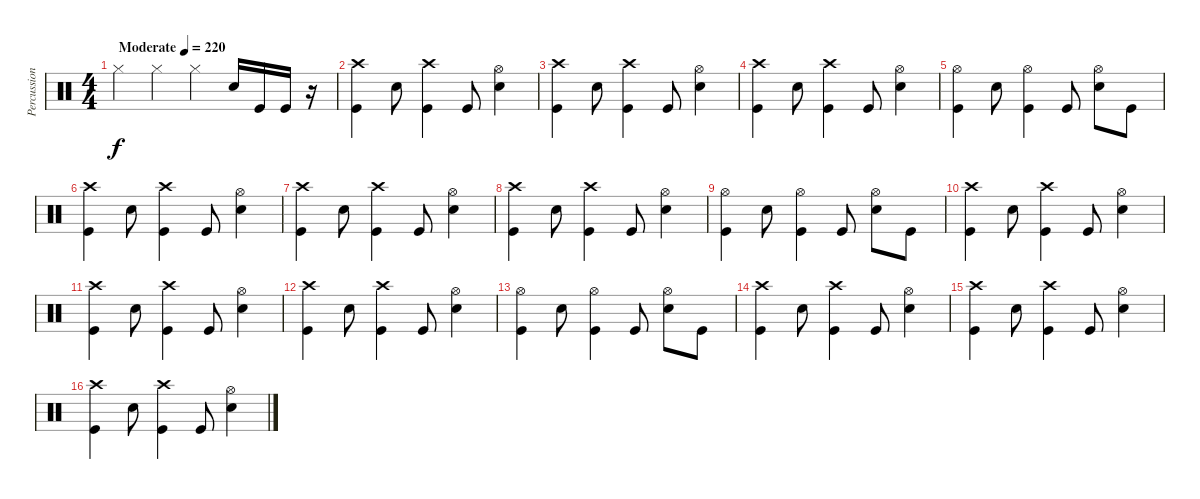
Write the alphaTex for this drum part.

\track ("Percussion" "Percussion") {instrument percussion}
\staff {score}
\articulation defaults
\ts (4 4)
\tempo (220 "Moderate")
\clef neutral
\ks c "Hi-Hat (closed)".4{dy f} "Hi-Hat (closed)".4 "Hi-Hat (closed)".4 "Electric Snare (hit)".16 "Kick (hit)".16 "Kick (hit)".16
r.16 |
("Crash high (hit)" "Kick (hit)").4 "Electric Snare (hit)".8 ("Crash high (hit)" "Kick (hit)").4 "Kick (hit)".8 ("Hi-Hat (open)" "Electric Snare (hit)").4 |
("Crash high (hit)" "Kick (hit)").4 "Electric Snare (hit)".8 ("Crash high (hit)" "Kick (hit)").4 "Kick (hit)".8 ("Hi-Hat (open)" "Electric Snare (hit)").4 |
("Crash high (hit)" "Kick (hit)").4 "Electric Snare (hit)".8 ("Crash high (hit)" "Kick (hit)").4 "Kick (hit)".8 ("Hi-Hat (open)" "Electric Snare (hit)").4 |
("Hi-Hat (open)" "Kick (hit)").4 "Electric Snare (hit)".8 ("Hi-Hat (open)" "Kick (hit)").4 "Kick (hit)".8 ("Hi-Hat (open)" "Electric Snare (hit)").8 "Kick (hit)".8 |
("Crash high (hit)" "Kick (hit)").4 "Electric Snare (hit)".8 ("Crash high (hit)" "Kick (hit)").4 "Kick (hit)".8 ("Hi-Hat (open)" "Electric Snare (hit)").4 |
("Crash high (hit)" "Kick (hit)").4 "Electric Snare (hit)".8 ("Crash high (hit)" "Kick (hit)").4 "Kick (hit)".8 ("Hi-Hat (open)" "Electric Snare (hit)").4 |
("Crash high (hit)" "Kick (hit)").4 "Electric Snare (hit)".8 ("Crash high (hit)" "Kick (hit)").4 "Kick (hit)".8 ("Hi-Hat (open)" "Electric Snare (hit)").4 |
("Hi-Hat (open)" "Kick (hit)").4 "Electric Snare (hit)".8 ("Hi-Hat (open)" "Kick (hit)").4 "Kick (hit)".8 ("Hi-Hat (open)" "Electric Snare (hit)").8 "Kick (hit)".8 |
("Crash high (hit)" "Kick (hit)").4 "Electric Snare (hit)".8 ("Crash high (hit)" "Kick (hit)").4 "Kick (hit)".8 ("Hi-Hat (open)" "Electric Snare (hit)").4 |
("Crash high (hit)" "Kick (hit)").4 "Electric Snare (hit)".8 ("Crash high (hit)" "Kick (hit)").4 "Kick (hit)".8 ("Hi-Hat (open)" "Electric Snare (hit)").4 |
("Crash high (hit)" "Kick (hit)").4 "Electric Snare (hit)".8 ("Crash high (hit)" "Kick (hit)").4 "Kick (hit)".8 ("Hi-Hat (open)" "Electric Snare (hit)").4 |
("Hi-Hat (open)" "Kick (hit)").4 "Electric Snare (hit)".8 ("Hi-Hat (open)" "Kick (hit)").4 "Kick (hit)".8 ("Hi-Hat (open)" "Electric Snare (hit)").8 "Kick (hit)".8 |
("Crash high (hit)" "Kick (hit)").4 "Electric Snare (hit)".8 ("Crash high (hit)" "Kick (hit)").4 "Kick (hit)".8 ("Hi-Hat (open)" "Electric Snare (hit)").4 |
("Crash high (hit)" "Kick (hit)").4 "Electric Snare (hit)".8 ("Crash high (hit)" "Kick (hit)").4 "Kick (hit)".8 ("Hi-Hat (open)" "Electric Snare (hit)").4 |
("Crash high (hit)" "Kick (hit)").4 "Electric Snare (hit)".8 ("Crash high (hit)" "Kick (hit)").4 "Kick (hit)".8 ("Hi-Hat (open)" "Electric Snare (hit)").4
